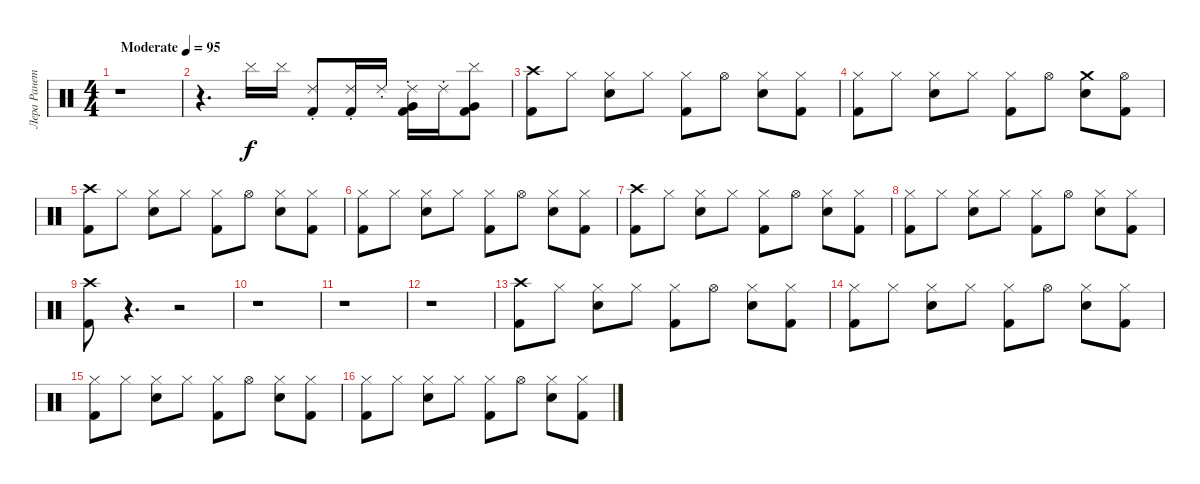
\track ("Лера Ранетка" "Лера Ранет") {instrument percussion}
\staff {score}
\articulation defaults
\ts (4 4)
\tempo (95 "Moderate")
\clef neutral
\ks c
r.1{dy f} |
r.4{d} "Cymbal (hit)".16 "Cymbal (hit)".16 ("Ride (choke) 2" "Kick (hit) 2").8 ("Ride (choke) 2" "Kick (hit) 2").16 "Ride (choke) 2".16 ("Ride (choke) 2" "Kick (hit) 2" "Very Low Tom (hit)").16 "Ride (choke) 2".16 ("Cymbal (hit)" "Kick (hit) 2" "Very Low Tom (hit)").8 |
("Crash high (hit)" "Kick (hit) 2").8 "Hi-Hat (closed)".8 ("Hi-Hat (closed)" "Electric Snare (hit)").8 "Hi-Hat (closed)".8 ("Hi-Hat (closed)" "Kick (hit) 2").8 "Hi-Hat (open)".8 ("Hi-Hat (closed)" "Electric Snare (hit)").8 ("Hi-Hat (closed)" "Kick (hit) 2").8 |
("Hi-Hat (closed)" "Kick (hit) 2").8 "Hi-Hat (closed)".8 ("Hi-Hat (closed)" "Electric Snare (hit)").8 "Hi-Hat (closed)".8 ("Hi-Hat (closed)" "Kick (hit) 2").8 "Hi-Hat (open)".8 ("Crash medium (hit)" "Electric Snare (hit)").8 ("Hi-Hat (open)" "Kick (hit) 2").8 |
("Crash high (hit)" "Kick (hit) 2").8 "Hi-Hat (closed)".8 ("Hi-Hat (closed)" "Electric Snare (hit)").8 "Hi-Hat (closed)".8 ("Hi-Hat (closed)" "Kick (hit) 2").8 "Hi-Hat (open)".8 ("Hi-Hat (closed)" "Electric Snare (hit)").8 ("Hi-Hat (closed)" "Kick (hit) 2").8 |
("Hi-Hat (closed)" "Kick (hit) 2").8 "Hi-Hat (closed)".8 ("Hi-Hat (closed)" "Electric Snare (hit)").8 "Hi-Hat (closed)".8 ("Hi-Hat (closed)" "Kick (hit) 2").8 "Hi-Hat (open)".8 ("Hi-Hat (closed)" "Electric Snare (hit)").8 ("Hi-Hat (closed)" "Kick (hit) 2").8 |
("Crash high (hit)" "Kick (hit) 2").8 "Hi-Hat (closed)".8 ("Hi-Hat (closed)" "Electric Snare (hit)").8 "Hi-Hat (closed)".8 ("Hi-Hat (closed)" "Kick (hit) 2").8 "Hi-Hat (open)".8 ("Hi-Hat (closed)" "Electric Snare (hit)").8 ("Hi-Hat (closed)" "Kick (hit) 2").8 |
("Hi-Hat (closed)" "Kick (hit) 2").8 "Hi-Hat (closed)".8 ("Hi-Hat (closed)" "Electric Snare (hit)").8 "Hi-Hat (closed)".8 ("Hi-Hat (closed)" "Kick (hit) 2").8 "Hi-Hat (open)".8 ("Hi-Hat (closed)" "Electric Snare (hit)").8 ("Hi-Hat (closed)" "Kick (hit) 2").8 |
("Crash high (hit)" "Kick (hit) 2").8 r.4{d} r.2 |
r.1 |
r.1 |
r.1 |
("Crash high (hit)" "Kick (hit) 2").8 "Hi-Hat (closed)".8 ("Hi-Hat (closed)" "Electric Snare (hit)").8 "Hi-Hat (closed)".8 ("Hi-Hat (closed)" "Kick (hit) 2").8 "Hi-Hat (open)".8 ("Hi-Hat (closed)" "Electric Snare (hit)").8 ("Hi-Hat (closed)" "Kick (hit) 2").8 |
("Hi-Hat (closed)" "Kick (hit) 2").8 "Hi-Hat (closed)".8 ("Hi-Hat (closed)" "Electric Snare (hit)").8 "Hi-Hat (closed)".8 ("Hi-Hat (closed)" "Kick (hit) 2").8 "Hi-Hat (open)".8 ("Hi-Hat (closed)" "Electric Snare (hit)").8 ("Hi-Hat (closed)" "Kick (hit) 2").8 |
("Hi-Hat (closed)" "Kick (hit) 2").8 "Hi-Hat (closed)".8 ("Hi-Hat (closed)" "Electric Snare (hit)").8 "Hi-Hat (closed)".8 ("Hi-Hat (closed)" "Kick (hit) 2").8 "Hi-Hat (open)".8 ("Hi-Hat (closed)" "Electric Snare (hit)").8 ("Hi-Hat (closed)" "Kick (hit) 2").8 |
("Hi-Hat (closed)" "Kick (hit) 2").8 "Hi-Hat (closed)".8 ("Hi-Hat (closed)" "Electric Snare (hit)").8 "Hi-Hat (closed)".8 ("Hi-Hat (closed)" "Kick (hit) 2").8 "Hi-Hat (open)".8 ("Hi-Hat (closed)" "Electric Snare (hit)").8 ("Hi-Hat (closed)" "Kick (hit) 2").8
